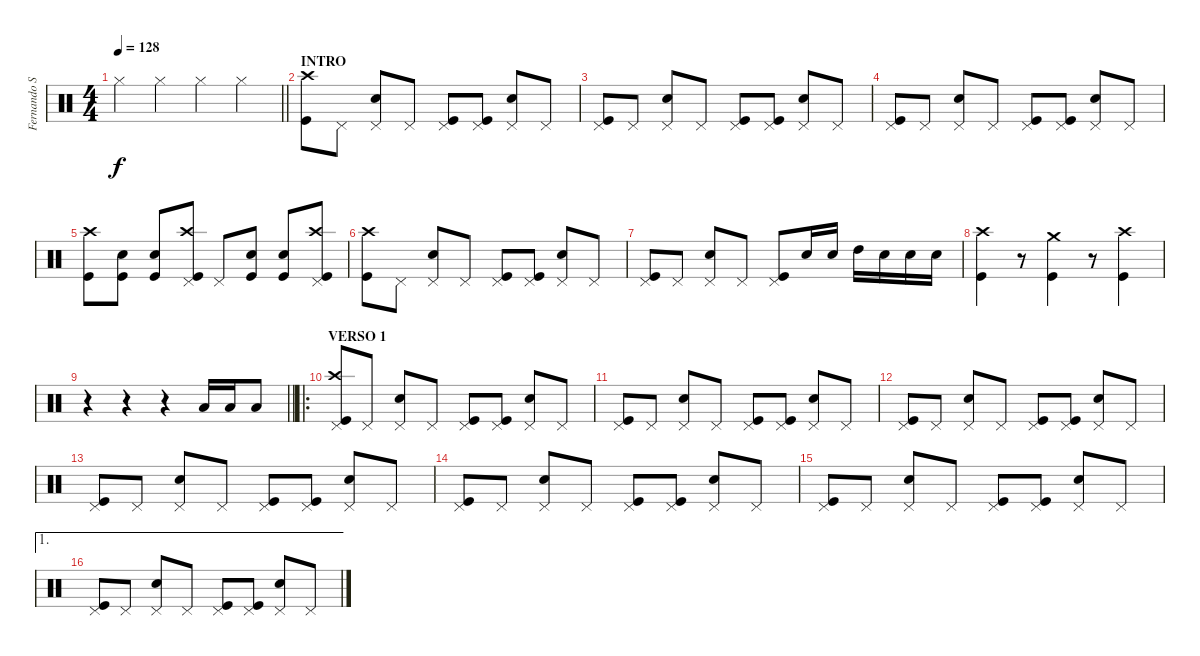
\track ("Fernando Scarcella" "Fernando S") {instrument percussion}
\staff {score}
\articulation defaults
\ts (4 4)
\tempo 128
\clef neutral
\barLineRight lightlight
\ks c "Hi-Hat (closed)".4{dy f} "Hi-Hat (closed)".4 "Hi-Hat (closed)".4 "Hi-Hat (closed)".4
|
\section ("" "INTRO")
("Kick (hit)" "Crash high (hit)").8 "Pedal Hi-Hat (hit)".8 ("Snare (hit) 2" "Pedal Hi-Hat (hit)").8 "Pedal Hi-Hat (hit)".8 ("Kick (hit)" "Pedal Hi-Hat (hit)").8 ("Kick (hit)" "Pedal Hi-Hat (hit)").8 ("Snare (hit) 2" "Pedal Hi-Hat (hit)").8 "Pedal Hi-Hat (hit)".8 |
("Kick (hit)" "Pedal Hi-Hat (hit)").8 "Pedal Hi-Hat (hit)".8 ("Snare (hit) 2" "Pedal Hi-Hat (hit)").8 "Pedal Hi-Hat (hit)".8 ("Kick (hit)" "Pedal Hi-Hat (hit)").8 ("Kick (hit)" "Pedal Hi-Hat (hit)").8 ("Snare (hit) 2" "Pedal Hi-Hat (hit)").8 "Pedal Hi-Hat (hit)".8 |
("Kick (hit)" "Pedal Hi-Hat (hit)").8 "Pedal Hi-Hat (hit)".8 ("Snare (hit) 2" "Pedal Hi-Hat (hit)").8 "Pedal Hi-Hat (hit)".8 ("Kick (hit)" "Pedal Hi-Hat (hit)").8 ("Kick (hit)" "Pedal Hi-Hat (hit)").8 ("Snare (hit) 2" "Pedal Hi-Hat (hit)").8 "Pedal Hi-Hat (hit)".8 |
("Kick (hit)" "Crash high (hit)").8 ("Kick (hit)" "Snare (hit) 2").8 ("Kick (hit)" "Snare (hit) 2").8 ("Crash high (hit)" "Kick (hit)" "Pedal Hi-Hat (hit)").8 "Pedal Hi-Hat (hit)".8 ("Kick (hit)" "Snare (hit) 2").8 ("Kick (hit)" "Snare (hit) 2").8 ("Crash high (hit)" "Kick (hit)" "Pedal Hi-Hat (hit)").8 |
("Kick (hit)" "Crash high (hit)").8 "Pedal Hi-Hat (hit)".8 ("Snare (hit) 2" "Pedal Hi-Hat (hit)").8 "Pedal Hi-Hat (hit)".8 ("Kick (hit)" "Pedal Hi-Hat (hit)").8 ("Kick (hit)" "Pedal Hi-Hat (hit)").8 ("Snare (hit) 2" "Pedal Hi-Hat (hit)").8 "Pedal Hi-Hat (hit)".8 |
("Kick (hit)" "Pedal Hi-Hat (hit)").8 "Pedal Hi-Hat (hit)".8 ("Snare (hit) 2" "Pedal Hi-Hat (hit)").8 "Pedal Hi-Hat (hit)".8 ("Kick (hit)" "Pedal Hi-Hat (hit)").8 "Snare (hit) 2".16 "Snare (hit) 2".16 "High Tom (hit)".16 "Snare (hit) 2".16 "Snare (hit) 2".16 "Snare (hit) 2".16 |
("Kick (hit)" "Crash high (hit)").4 r.8 ("Kick (hit)" "Crash medium (hit)").4 r.8 ("Kick (hit)" "Crash high (hit)").4 |
\barLineRight lightlight
r.4 r.4 r.4 "Low Floor Tom (hit)".16 "Low Floor Tom (hit)".16 "Low Floor Tom (hit)".8 |
\ro
\section ("" "VERSO 1")
("Crash high (hit)" "Kick (hit)" "Pedal Hi-Hat (hit)").8 "Pedal Hi-Hat (hit)".8 ("Snare (hit) 2" "Pedal Hi-Hat (hit)").8 "Pedal Hi-Hat (hit)".8 ("Kick (hit)" "Pedal Hi-Hat (hit)").8 ("Kick (hit)" "Pedal Hi-Hat (hit)").8 ("Snare (hit) 2" "Pedal Hi-Hat (hit)").8 "Pedal Hi-Hat (hit)".8 |
("Kick (hit)" "Pedal Hi-Hat (hit)").8 "Pedal Hi-Hat (hit)".8 ("Snare (hit) 2" "Pedal Hi-Hat (hit)").8 "Pedal Hi-Hat (hit)".8 ("Kick (hit)" "Pedal Hi-Hat (hit)").8 ("Kick (hit)" "Pedal Hi-Hat (hit)").8 ("Snare (hit) 2" "Pedal Hi-Hat (hit)").8 "Pedal Hi-Hat (hit)".8 |
("Kick (hit)" "Pedal Hi-Hat (hit)").8 "Pedal Hi-Hat (hit)".8 ("Snare (hit) 2" "Pedal Hi-Hat (hit)").8 "Pedal Hi-Hat (hit)".8 ("Kick (hit)" "Pedal Hi-Hat (hit)").8 ("Kick (hit)" "Pedal Hi-Hat (hit)").8 ("Snare (hit) 2" "Pedal Hi-Hat (hit)").8 "Pedal Hi-Hat (hit)".8 |
("Kick (hit)" "Pedal Hi-Hat (hit)").8 "Pedal Hi-Hat (hit)".8 ("Snare (hit) 2" "Pedal Hi-Hat (hit)").8 "Pedal Hi-Hat (hit)".8 ("Kick (hit)" "Pedal Hi-Hat (hit)").8 ("Kick (hit)" "Pedal Hi-Hat (hit)").8 ("Snare (hit) 2" "Pedal Hi-Hat (hit)").8 "Pedal Hi-Hat (hit)".8 |
("Kick (hit)" "Pedal Hi-Hat (hit)").8 "Pedal Hi-Hat (hit)".8 ("Snare (hit) 2" "Pedal Hi-Hat (hit)").8 "Pedal Hi-Hat (hit)".8 ("Kick (hit)" "Pedal Hi-Hat (hit)").8 ("Kick (hit)" "Pedal Hi-Hat (hit)").8 ("Snare (hit) 2" "Pedal Hi-Hat (hit)").8 "Pedal Hi-Hat (hit)".8 |
("Kick (hit)" "Pedal Hi-Hat (hit)").8 "Pedal Hi-Hat (hit)".8 ("Snare (hit) 2" "Pedal Hi-Hat (hit)").8 "Pedal Hi-Hat (hit)".8 ("Kick (hit)" "Pedal Hi-Hat (hit)").8 ("Kick (hit)" "Pedal Hi-Hat (hit)").8 ("Snare (hit) 2" "Pedal Hi-Hat (hit)").8 "Pedal Hi-Hat (hit)".8 |
\ae 1
("Kick (hit)" "Pedal Hi-Hat (hit)").8 "Pedal Hi-Hat (hit)".8 ("Snare (hit) 2" "Pedal Hi-Hat (hit)").8 "Pedal Hi-Hat (hit)".8 ("Kick (hit)" "Pedal Hi-Hat (hit)").8 ("Kick (hit)" "Pedal Hi-Hat (hit)").8 ("Snare (hit) 2" "Pedal Hi-Hat (hit)").8 "Pedal Hi-Hat (hit)".8
